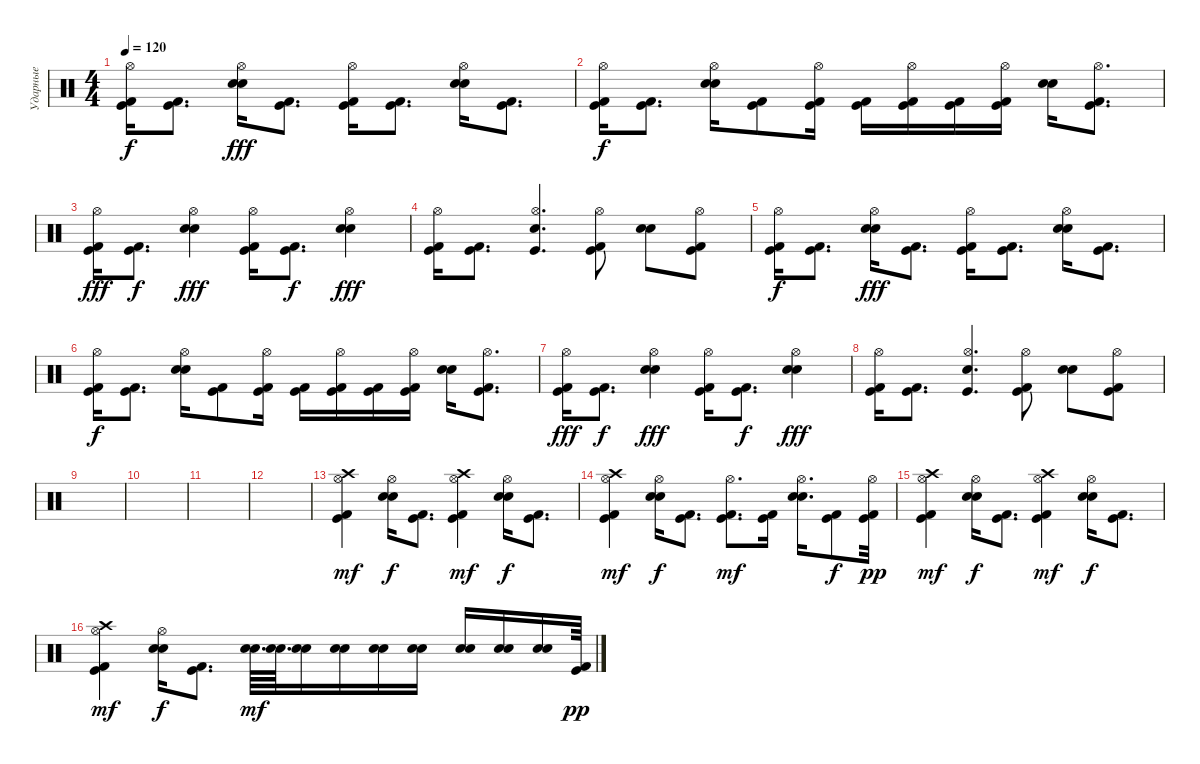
\track ("Ударные" "Ударные") {instrument percussion}
\staff {score}
\articulation defaults
\ts (4 4)
\tempo 120
\clef neutral
\ks c
("Kick (hit) 2" "Kick (hit)" "Hi-Hat (open)").16{dy f} ("Kick (hit) 2" "Kick (hit)").8{d} ("Snare (hit) 2" "Electric Snare (hit)" "Hi-Hat (open)").16{dy fff} ("Kick (hit) 2" "Kick (hit)").8{d} ("Kick (hit) 2" "Kick (hit)" "Hi-Hat (open)").16 ("Kick (hit) 2" "Kick (hit)").8{d} ("Snare (hit) 2" "Electric Snare (hit)" "Hi-Hat (open)").16 ("Kick (hit) 2" "Kick (hit)").8{d} |
("Kick (hit) 2" "Kick (hit)" "Hi-Hat (open)").16{dy f} ("Kick (hit) 2" "Kick (hit)").8{d} ("Snare (hit) 2" "Electric Snare (hit)" "Hi-Hat (open)").16 ("Kick (hit) 2" "Kick (hit)").8 ("Kick (hit) 2" "Kick (hit)" "Hi-Hat (open)").16 ("Kick (hit) 2" "Kick (hit)").16 ("Kick (hit) 2" "Kick (hit)" "Hi-Hat (open)").16 ("Kick (hit) 2" "Kick (hit)").16 ("Kick (hit) 2" "Kick (hit)" "Hi-Hat (open)").16 ("Snare (hit) 2" "Electric Snare (hit)").16 ("Kick (hit) 2" "Kick (hit)" "Hi-Hat (open)").8{d} |
("Kick (hit) 2" "Kick (hit)" "Hi-Hat (open)").16{dy fff} ("Kick (hit) 2" "Kick (hit)").8{d dy f} ("Snare (hit) 2" "Electric Snare (hit)" "Hi-Hat (open)").4{dy fff} ("Kick (hit) 2" "Kick (hit)" "Hi-Hat (open)").16 ("Kick (hit) 2" "Kick (hit)").8{d dy f} ("Snare (hit) 2" "Electric Snare (hit)" "Hi-Hat (open)").4{dy fff} |
("Kick (hit) 2" "Kick (hit)" "Hi-Hat (open)").16 ("Kick (hit) 2" "Kick (hit)").8{d} ("Kick (hit)" "Electric Snare (hit)" "Hi-Hat (open)").4{d} ("Kick (hit) 2" "Kick (hit)" "Hi-Hat (open)").8 ("Snare (hit) 2" "Electric Snare (hit)").8 ("Kick (hit) 2" "Kick (hit)" "Hi-Hat (open)").8 |
("Kick (hit) 2" "Kick (hit)" "Hi-Hat (open)").16{dy f} ("Kick (hit) 2" "Kick (hit)").8{d} ("Snare (hit) 2" "Electric Snare (hit)" "Hi-Hat (open)").16{dy fff} ("Kick (hit) 2" "Kick (hit)").8{d} ("Kick (hit) 2" "Kick (hit)" "Hi-Hat (open)").16 ("Kick (hit) 2" "Kick (hit)").8{d} ("Snare (hit) 2" "Electric Snare (hit)" "Hi-Hat (open)").16 ("Kick (hit) 2" "Kick (hit)").8{d} |
("Kick (hit) 2" "Kick (hit)" "Hi-Hat (open)").16{dy f} ("Kick (hit) 2" "Kick (hit)").8{d} ("Snare (hit) 2" "Electric Snare (hit)" "Hi-Hat (open)").16 ("Kick (hit) 2" "Kick (hit)").8 ("Kick (hit) 2" "Kick (hit)" "Hi-Hat (open)").16 ("Kick (hit) 2" "Kick (hit)").16 ("Kick (hit) 2" "Kick (hit)" "Hi-Hat (open)").16 ("Kick (hit) 2" "Kick (hit)").16 ("Kick (hit) 2" "Kick (hit)" "Hi-Hat (open)").16 ("Snare (hit) 2" "Electric Snare (hit)").16 ("Kick (hit) 2" "Kick (hit)" "Hi-Hat (open)").8{d} |
("Kick (hit) 2" "Kick (hit)" "Hi-Hat (open)").16{dy fff} ("Kick (hit) 2" "Kick (hit)").8{d dy f} ("Snare (hit) 2" "Electric Snare (hit)" "Hi-Hat (open)").4{dy fff} ("Kick (hit) 2" "Kick (hit)" "Hi-Hat (open)").16 ("Kick (hit) 2" "Kick (hit)").8{d dy f} ("Snare (hit) 2" "Electric Snare (hit)" "Hi-Hat (open)").4{dy fff} |
("Kick (hit) 2" "Kick (hit)" "Hi-Hat (open)").16 ("Kick (hit) 2" "Kick (hit)").8{d} ("Kick (hit)" "Electric Snare (hit)" "Hi-Hat (open)").4{d} ("Kick (hit) 2" "Kick (hit)" "Hi-Hat (open)").8 ("Snare (hit) 2" "Electric Snare (hit)").8 ("Kick (hit) 2" "Kick (hit)" "Hi-Hat (open)").8 |
|
|
|
|
("Kick (hit) 2" "Kick (hit)" "Hi-Hat (open)" "Crash high (hit)").4{dy mf} ("Snare (hit) 2" "Electric Snare (hit)" "Hi-Hat (open)").16{dy f} ("Kick (hit) 2" "Kick (hit)").8{d} ("Kick (hit) 2" "Kick (hit)" "Hi-Hat (open)" "Crash high (hit)").4{dy mf} ("Snare (hit) 2" "Electric Snare (hit)" "Hi-Hat (open)").16{dy f} ("Kick (hit) 2" "Kick (hit)").8{d} |
("Kick (hit) 2" "Kick (hit)" "Hi-Hat (open)" "Crash high (hit)").4{dy mf} ("Snare (hit) 2" "Electric Snare (hit)" "Hi-Hat (open)").16{dy f} ("Kick (hit) 2" "Kick (hit)").8{d} ("Kick (hit) 2" "Kick (hit)" "Hi-Hat (open)").8{d dy mf} ("Kick (hit) 2" "Kick (hit)").16 ("Snare (hit) 2" "Electric Snare (hit)" "Hi-Hat (open)").16{d} ("Kick (hit) 2" "Kick (hit)").8{dy f} ("Kick (hit) 2" "Kick (hit)" "Hi-Hat (open)").32{dy pp} |
("Kick (hit) 2" "Kick (hit)" "Hi-Hat (open)" "Crash high (hit)").4{dy mf} ("Snare (hit) 2" "Electric Snare (hit)" "Hi-Hat (open)").16{dy f} ("Kick (hit) 2" "Kick (hit)").8{d} ("Kick (hit) 2" "Kick (hit)" "Hi-Hat (open)" "Crash high (hit)").4{dy mf} ("Snare (hit) 2" "Electric Snare (hit)" "Hi-Hat (open)").16{dy f} ("Kick (hit) 2" "Kick (hit)").8{d} |
("Kick (hit) 2" "Kick (hit)" "Hi-Hat (open)" "Crash high (hit)").4{dy mf} ("Snare (hit) 2" "Electric Snare (hit)" "Hi-Hat (open)").16{dy f} ("Kick (hit) 2" "Kick (hit)").8{d} ("Snare (hit) 2" "Electric Snare (hit)").64{d dy mf} ("Snare (hit) 2" "Electric Snare (hit)").64{d} ("Snare (hit) 2" "Electric Snare (hit)").16 ("Snare (hit) 2" "Electric Snare (hit)").16 ("Snare (hit) 2" "Electric Snare (hit)").16 ("Snare (hit) 2" "Electric Snare (hit)").16 ("Snare (hit) 2" "Electric Snare (hit)").16 ("Snare (hit) 2" "Electric Snare (hit)").16 ("Snare (hit) 2" "Electric Snare (hit)").16 ("Kick (hit) 2" "Kick (hit)").64{dy pp}
